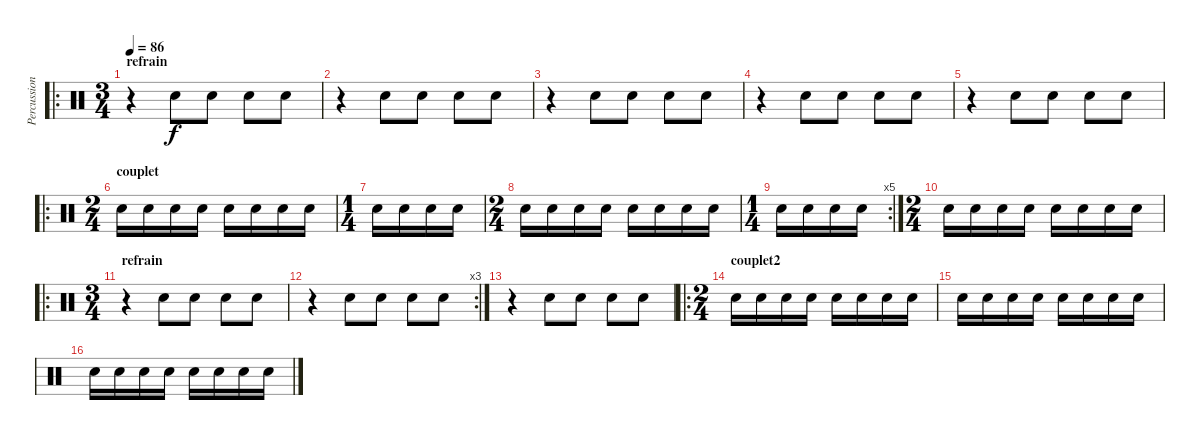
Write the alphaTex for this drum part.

\track ("Percussions" "Percussion") {instrument percussion}
\staff {score}
\articulation defaults
\ro
\ts (3 4)
\section ("" "refrain")
\tempo 86
\clef neutral
\ks c
r.4{dy f} "Snare (hit) 2".8 "Snare (hit) 2".8 "Snare (hit) 2".8 "Snare (hit) 2".8 |
r.4 "Snare (hit) 2".8 "Snare (hit) 2".8 "Snare (hit) 2".8 "Snare (hit) 2".8 |
r.4 "Snare (hit) 2".8 "Snare (hit) 2".8 "Snare (hit) 2".8 "Snare (hit) 2".8 |
r.4 "Snare (hit) 2".8 "Snare (hit) 2".8 "Snare (hit) 2".8 "Snare (hit) 2".8 |
r.4 "Snare (hit) 2".8 "Snare (hit) 2".8 "Snare (hit) 2".8 "Snare (hit) 2".8 |
\ro
\ts (2 4)
\section ("" "couplet")
"Snare (hit) 2".16 "Snare (hit) 2".16 "Snare (hit) 2".16 "Snare (hit) 2".16 "Snare (hit) 2".16 "Snare (hit) 2".16 "Snare (hit) 2".16 "Snare (hit) 2".16 |
\ts (1 4)
"Snare (hit) 2".16 "Snare (hit) 2".16 "Snare (hit) 2".16 "Snare (hit) 2".16 |
\ts (2 4)
"Snare (hit) 2".16 "Snare (hit) 2".16 "Snare (hit) 2".16 "Snare (hit) 2".16 "Snare (hit) 2".16 "Snare (hit) 2".16 "Snare (hit) 2".16 "Snare (hit) 2".16 |
\rc 5
\ts (1 4)
"Snare (hit) 2".16 "Snare (hit) 2".16 "Snare (hit) 2".16 "Snare (hit) 2".16 |
\ts (2 4)
"Snare (hit) 2".16 "Snare (hit) 2".16 "Snare (hit) 2".16 "Snare (hit) 2".16 "Snare (hit) 2".16 "Snare (hit) 2".16 "Snare (hit) 2".16 "Snare (hit) 2".16 |
\ro
\ts (3 4)
\section ("" "refrain")
r.4 "Snare (hit) 2".8 "Snare (hit) 2".8 "Snare (hit) 2".8 "Snare (hit) 2".8 |
\rc 3
r.4 "Snare (hit) 2".8 "Snare (hit) 2".8 "Snare (hit) 2".8 "Snare (hit) 2".8 |
r.4 "Snare (hit) 2".8 "Snare (hit) 2".8 "Snare (hit) 2".8 "Snare (hit) 2".8 |
\ro
\ts (2 4)
\section ("" "couplet2")
"Snare (hit) 2".16 "Snare (hit) 2".16 "Snare (hit) 2".16 "Snare (hit) 2".16 "Snare (hit) 2".16 "Snare (hit) 2".16 "Snare (hit) 2".16 "Snare (hit) 2".16 |
"Snare (hit) 2".16 "Snare (hit) 2".16 "Snare (hit) 2".16 "Snare (hit) 2".16 "Snare (hit) 2".16 "Snare (hit) 2".16 "Snare (hit) 2".16 "Snare (hit) 2".16 |
"Snare (hit) 2".16 "Snare (hit) 2".16 "Snare (hit) 2".16 "Snare (hit) 2".16 "Snare (hit) 2".16 "Snare (hit) 2".16 "Snare (hit) 2".16 "Snare (hit) 2".16
